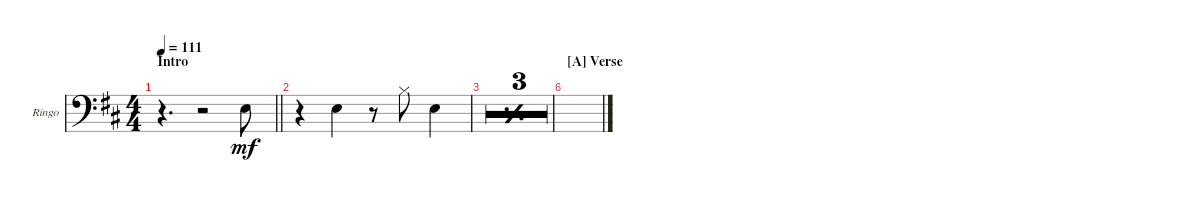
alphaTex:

\defaultSystemsLayout 4
\bracketExtendMode groupsimilarinstruments
\firstSystemTrackNameOrientation horizontal
\otherSystemsTrackNameOrientation horizontal
\track ("Ringo Starr - Arms" "Ringo") {multiBarRest instrument percussion}
\staff {score}
\articulation defaults
\ts (4 4)
\section ("" "Intro")
\tempo 111
\clef f4
\barLineRight lightlight
\ks d
r.4{d dy mf} r.2 "Snare (hit) 2".8 |
r.4 "Snare (hit) 2".4 r.8 "Hi-Hat (closed)".8 "Snare (hit) 2".4 |
\simile simple
|
|
|
\section ("A" "Verse")
